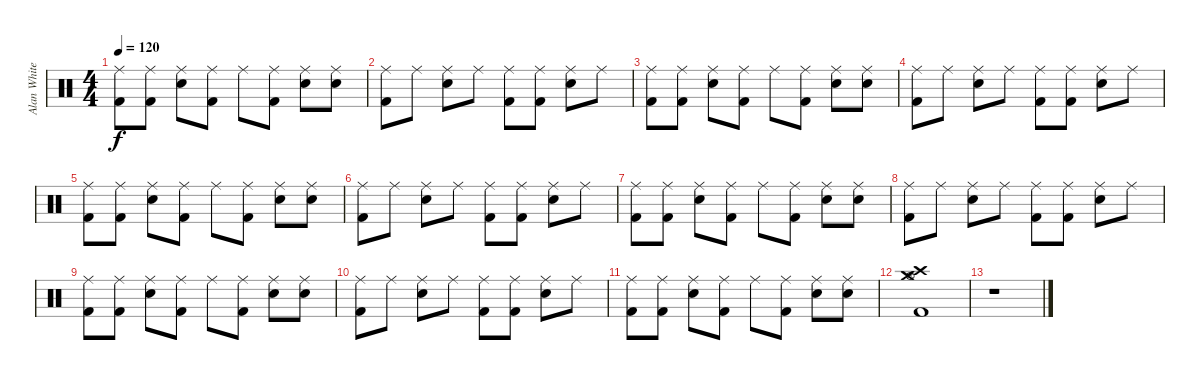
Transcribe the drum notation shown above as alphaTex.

\track ("Alan White - Drums" "Alan White") {instrument percussion}
\staff {score}
\articulation defaults
\ts (4 4)
\tempo 120
\clef neutral
\ks c
("Ride (middle)" "Kick (hit) 2").8{dy f} ("Ride (middle)" "Kick (hit) 2").8 ("Ride (middle)" "Electric Snare (hit)").8 ("Ride (middle)" "Kick (hit) 2").8 "Ride (middle)".8 ("Ride (middle)" "Kick (hit) 2").8 ("Ride (middle)" "Electric Snare (hit)").8 ("Ride (middle)" "Electric Snare (hit)").8 |
("Ride (middle)" "Kick (hit) 2").8 "Ride (middle)".8 ("Ride (middle)" "Electric Snare (hit)").8 "Ride (middle)".8 ("Ride (middle)" "Kick (hit) 2").8 ("Ride (middle)" "Kick (hit) 2").8 ("Ride (middle)" "Electric Snare (hit)").8 "Ride (middle)".8 |
("Ride (middle)" "Kick (hit) 2").8 ("Ride (middle)" "Kick (hit) 2").8 ("Ride (middle)" "Electric Snare (hit)").8 ("Ride (middle)" "Kick (hit) 2").8 "Ride (middle)".8 ("Ride (middle)" "Kick (hit) 2").8 ("Ride (middle)" "Electric Snare (hit)").8 ("Ride (middle)" "Electric Snare (hit)").8 |
("Ride (middle)" "Kick (hit) 2").8 "Ride (middle)".8 ("Ride (middle)" "Electric Snare (hit)").8 "Ride (middle)".8 ("Ride (middle)" "Kick (hit) 2").8 ("Ride (middle)" "Kick (hit) 2").8 ("Ride (middle)" "Electric Snare (hit)").8 "Ride (middle)".8 |
("Ride (middle)" "Kick (hit) 2").8 ("Ride (middle)" "Kick (hit) 2").8 ("Ride (middle)" "Electric Snare (hit)").8 ("Ride (middle)" "Kick (hit) 2").8 "Ride (middle)".8 ("Ride (middle)" "Kick (hit) 2").8 ("Ride (middle)" "Electric Snare (hit)").8 ("Ride (middle)" "Electric Snare (hit)").8 |
("Ride (middle)" "Kick (hit) 2").8 "Ride (middle)".8 ("Ride (middle)" "Electric Snare (hit)").8 "Ride (middle)".8 ("Ride (middle)" "Kick (hit) 2").8 ("Ride (middle)" "Kick (hit) 2").8 ("Ride (middle)" "Electric Snare (hit)").8 "Ride (middle)".8 |
("Ride (middle)" "Kick (hit) 2").8 ("Ride (middle)" "Kick (hit) 2").8 ("Ride (middle)" "Electric Snare (hit)").8 ("Ride (middle)" "Kick (hit) 2").8 "Ride (middle)".8 ("Ride (middle)" "Kick (hit) 2").8 ("Ride (middle)" "Electric Snare (hit)").8 ("Ride (middle)" "Electric Snare (hit)").8 |
("Ride (middle)" "Kick (hit) 2").8 "Ride (middle)".8 ("Ride (middle)" "Electric Snare (hit)").8 "Ride (middle)".8 ("Ride (middle)" "Kick (hit) 2").8 ("Ride (middle)" "Kick (hit) 2").8 ("Ride (middle)" "Electric Snare (hit)").8 "Ride (middle)".8 |
("Ride (middle)" "Kick (hit) 2").8 ("Ride (middle)" "Kick (hit) 2").8 ("Ride (middle)" "Electric Snare (hit)").8 ("Ride (middle)" "Kick (hit) 2").8 "Ride (middle)".8 ("Ride (middle)" "Kick (hit) 2").8 ("Ride (middle)" "Electric Snare (hit)").8 ("Ride (middle)" "Electric Snare (hit)").8 |
("Ride (middle)" "Kick (hit) 2").8 "Ride (middle)".8 ("Ride (middle)" "Electric Snare (hit)").8 "Ride (middle)".8 ("Ride (middle)" "Kick (hit) 2").8 ("Ride (middle)" "Kick (hit) 2").8 ("Ride (middle)" "Electric Snare (hit)").8 "Ride (middle)".8 |
("Ride (middle)" "Kick (hit) 2").8 ("Ride (middle)" "Kick (hit) 2").8 ("Ride (middle)" "Electric Snare (hit)").8 ("Ride (middle)" "Kick (hit) 2").8 "Ride (middle)".8 ("Ride (middle)" "Kick (hit) 2").8 ("Ride (middle)" "Electric Snare (hit)").8 ("Ride (middle)" "Electric Snare (hit)").8 |
("Crash medium (hit)" "Crash high (hit)" "Hi-Hat (open)" "Kick (hit) 2").1 |
r.1
